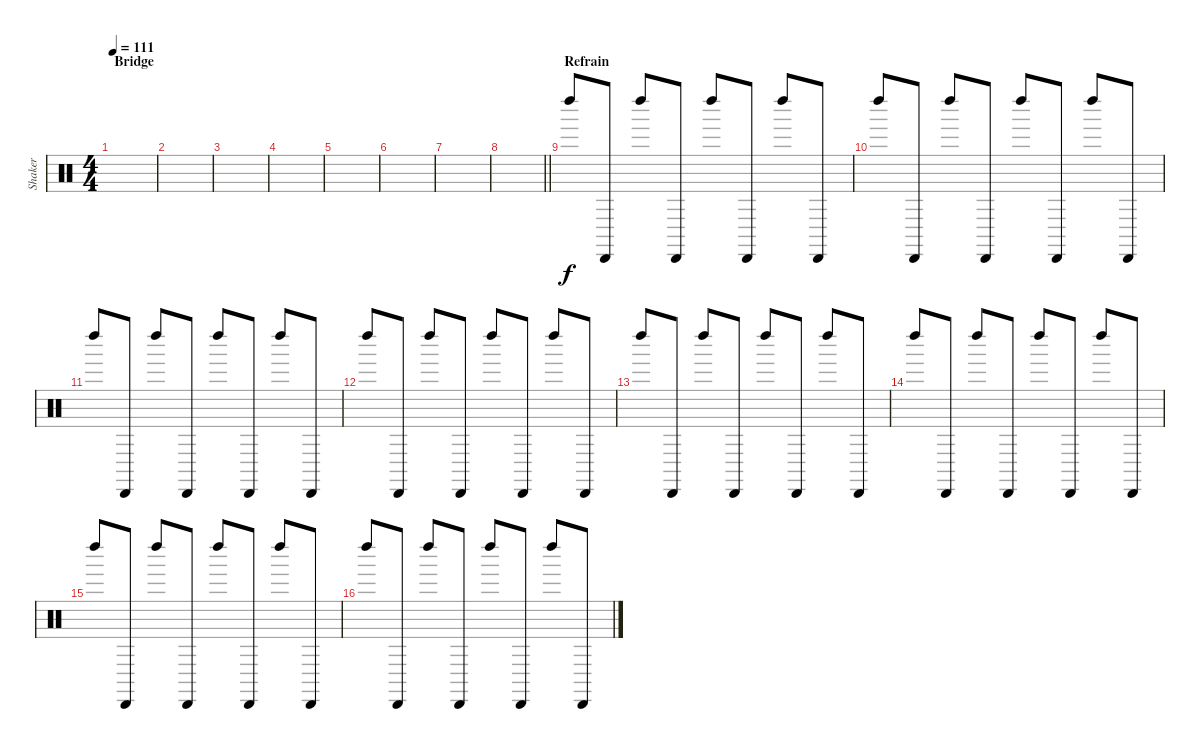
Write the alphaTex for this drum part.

\track ("Shaker" "Shaker") {instrument percussion}
\staff {score}
\articulation defaults
\ts (4 4)
\section ("" "Bridge")
\tempo 111
\clef neutral
\ks c
|
|
|
|
|
|
|
\barLineRight lightlight
|
\section ("" "Refrain")
"Left Maraca (hit)".8 "Cabasa (hit)".8 "Left Maraca (hit)".8 "Cabasa (hit)".8 "Left Maraca (hit)".8 "Cabasa (hit)".8 "Left Maraca (hit)".8 "Cabasa (hit)".8 |
"Left Maraca (hit)".8 "Cabasa (hit)".8 "Left Maraca (hit)".8 "Cabasa (hit)".8 "Left Maraca (hit)".8 "Cabasa (hit)".8 "Left Maraca (hit)".8 "Cabasa (hit)".8 |
"Left Maraca (hit)".8 "Cabasa (hit)".8 "Left Maraca (hit)".8 "Cabasa (hit)".8 "Left Maraca (hit)".8 "Cabasa (hit)".8 "Left Maraca (hit)".8 "Cabasa (hit)".8 |
"Left Maraca (hit)".8 "Cabasa (hit)".8 "Left Maraca (hit)".8 "Cabasa (hit)".8 "Left Maraca (hit)".8 "Cabasa (hit)".8 "Left Maraca (hit)".8 "Cabasa (hit)".8 |
"Left Maraca (hit)".8 "Cabasa (hit)".8 "Left Maraca (hit)".8 "Cabasa (hit)".8 "Left Maraca (hit)".8 "Cabasa (hit)".8 "Left Maraca (hit)".8 "Cabasa (hit)".8 |
"Left Maraca (hit)".8 "Cabasa (hit)".8 "Left Maraca (hit)".8 "Cabasa (hit)".8 "Left Maraca (hit)".8 "Cabasa (hit)".8 "Left Maraca (hit)".8 "Cabasa (hit)".8 |
"Left Maraca (hit)".8 "Cabasa (hit)".8 "Left Maraca (hit)".8 "Cabasa (hit)".8 "Left Maraca (hit)".8 "Cabasa (hit)".8 "Left Maraca (hit)".8 "Cabasa (hit)".8 |
"Left Maraca (hit)".8 "Cabasa (hit)".8 "Left Maraca (hit)".8 "Cabasa (hit)".8 "Left Maraca (hit)".8 "Cabasa (hit)".8 "Left Maraca (hit)".8 "Cabasa (hit)".8
